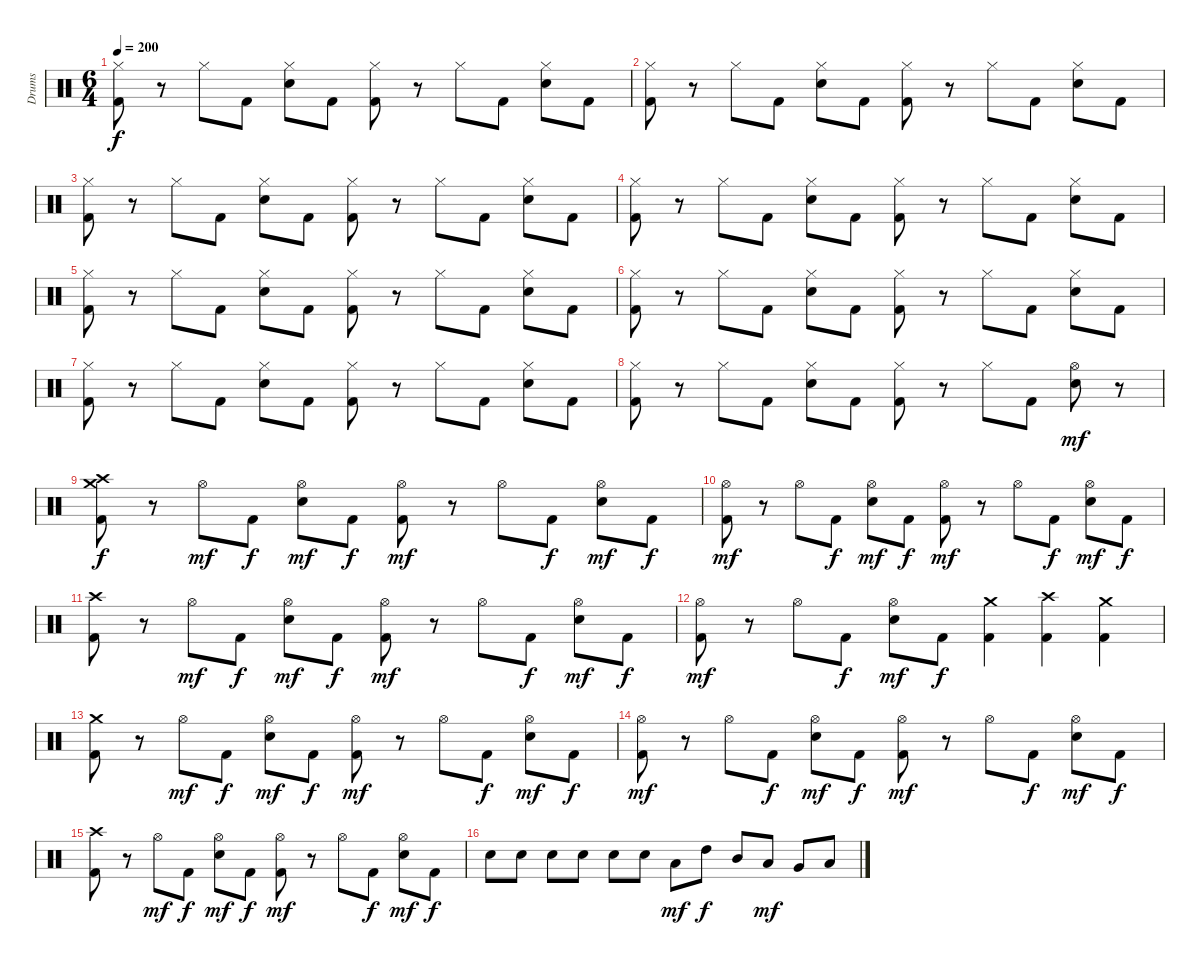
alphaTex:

\track ("Drums" "Drums") {instrument percussion}
\staff {score}
\articulation defaults
\ts (6 4)
\tempo 200
\clef neutral
\ks c
("Hi-Hat (closed)" "Kick (hit) 2").8{dy f} r.8 "Hi-Hat (closed)".8 "Kick (hit) 2".8 ("Hi-Hat (closed)" "Snare (hit) 2").8 "Kick (hit) 2".8 ("Hi-Hat (closed)" "Kick (hit) 2").8 r.8 "Hi-Hat (closed)".8 "Kick (hit) 2".8 ("Hi-Hat (closed)" "Snare (hit) 2").8 "Kick (hit) 2".8 |
("Hi-Hat (closed)" "Kick (hit) 2").8 r.8 "Hi-Hat (closed)".8 "Kick (hit) 2".8 ("Hi-Hat (closed)" "Snare (hit) 2").8 "Kick (hit) 2".8 ("Hi-Hat (closed)" "Kick (hit) 2").8 r.8 "Hi-Hat (closed)".8 "Kick (hit) 2".8 ("Hi-Hat (closed)" "Snare (hit) 2").8 "Kick (hit) 2".8 |
("Hi-Hat (closed)" "Kick (hit) 2").8 r.8 "Hi-Hat (closed)".8 "Kick (hit) 2".8 ("Hi-Hat (closed)" "Snare (hit) 2").8 "Kick (hit) 2".8 ("Hi-Hat (closed)" "Kick (hit) 2").8 r.8 "Hi-Hat (closed)".8 "Kick (hit) 2".8 ("Hi-Hat (closed)" "Snare (hit) 2").8 "Kick (hit) 2".8 |
("Hi-Hat (closed)" "Kick (hit) 2").8 r.8 "Hi-Hat (closed)".8 "Kick (hit) 2".8 ("Hi-Hat (closed)" "Snare (hit) 2").8 "Kick (hit) 2".8 ("Hi-Hat (closed)" "Kick (hit) 2").8 r.8 "Hi-Hat (closed)".8 "Kick (hit) 2".8 ("Hi-Hat (closed)" "Snare (hit) 2").8 "Kick (hit) 2".8 |
("Hi-Hat (closed)" "Kick (hit) 2").8 r.8 "Hi-Hat (closed)".8 "Kick (hit) 2".8 ("Hi-Hat (closed)" "Snare (hit) 2").8 "Kick (hit) 2".8 ("Hi-Hat (closed)" "Kick (hit) 2").8 r.8 "Hi-Hat (closed)".8 "Kick (hit) 2".8 ("Hi-Hat (closed)" "Snare (hit) 2").8 "Kick (hit) 2".8 |
("Hi-Hat (closed)" "Kick (hit) 2").8 r.8 "Hi-Hat (closed)".8 "Kick (hit) 2".8 ("Hi-Hat (closed)" "Snare (hit) 2").8 "Kick (hit) 2".8 ("Hi-Hat (closed)" "Kick (hit) 2").8 r.8 "Hi-Hat (closed)".8 "Kick (hit) 2".8 ("Hi-Hat (closed)" "Snare (hit) 2").8 "Kick (hit) 2".8 |
("Hi-Hat (closed)" "Kick (hit) 2").8 r.8 "Hi-Hat (closed)".8 "Kick (hit) 2".8 ("Hi-Hat (closed)" "Snare (hit) 2").8 "Kick (hit) 2".8 ("Hi-Hat (closed)" "Kick (hit) 2").8 r.8 "Hi-Hat (closed)".8 "Kick (hit) 2".8 ("Hi-Hat (closed)" "Snare (hit) 2").8 "Kick (hit) 2".8 |
("Hi-Hat (closed)" "Kick (hit) 2").8 r.8 "Hi-Hat (closed)".8 "Kick (hit) 2".8 ("Hi-Hat (closed)" "Snare (hit) 2").8 "Kick (hit) 2".8 ("Hi-Hat (closed)" "Kick (hit) 2").8 r.8 "Hi-Hat (closed)".8 "Kick (hit) 2".8 ("Hi-Hat (open)" "Snare (hit) 2").8{dy mf} r.8 |
("Crash medium (hit)" "Crash high (hit)" "Kick (hit) 2").8{dy f} r.8 "Hi-Hat (open)".8{dy mf} "Kick (hit) 2".8{dy f} ("Hi-Hat (open)" "Snare (hit) 2").8{dy mf} "Kick (hit) 2".8{dy f} ("Hi-Hat (open)" "Kick (hit) 2").8{dy mf} r.8 "Hi-Hat (open)".8 "Kick (hit) 2".8{dy f} ("Hi-Hat (open)" "Snare (hit) 2").8{dy mf} "Kick (hit) 2".8{dy f} |
("Hi-Hat (open)" "Kick (hit) 2").8{dy mf} r.8 "Hi-Hat (open)".8 "Kick (hit) 2".8{dy f} ("Hi-Hat (open)" "Snare (hit) 2").8{dy mf} "Kick (hit) 2".8{dy f} ("Hi-Hat (open)" "Kick (hit) 2").8{dy mf} r.8 "Hi-Hat (open)".8 "Kick (hit) 2".8{dy f} ("Hi-Hat (open)" "Snare (hit) 2").8{dy mf} "Kick (hit) 2".8{dy f} |
("Crash high (hit)" "Kick (hit) 2").8 r.8 "Hi-Hat (open)".8{dy mf} "Kick (hit) 2".8{dy f} ("Hi-Hat (open)" "Snare (hit) 2").8{dy mf} "Kick (hit) 2".8{dy f} ("Hi-Hat (open)" "Kick (hit) 2").8{dy mf} r.8 "Hi-Hat (open)".8 "Kick (hit) 2".8{dy f} ("Hi-Hat (open)" "Snare (hit) 2").8{dy mf} "Kick (hit) 2".8{dy f} |
("Hi-Hat (open)" "Kick (hit) 2").8{dy mf} r.8 "Hi-Hat (open)".8 "Kick (hit) 2".8{dy f} ("Hi-Hat (open)" "Snare (hit) 2").8{dy mf} "Kick (hit) 2".8{dy f} ("Crash medium (hit)" "Kick (hit) 2").4 ("Crash high (hit)" "Kick (hit) 2").4 ("Crash medium (hit)" "Kick (hit) 2").4 |
("Crash medium (hit)" "Kick (hit) 2").8 r.8 "Hi-Hat (open)".8{dy mf} "Kick (hit) 2".8{dy f} ("Hi-Hat (open)" "Snare (hit) 2").8{dy mf} "Kick (hit) 2".8{dy f} ("Hi-Hat (open)" "Kick (hit) 2").8{dy mf} r.8 "Hi-Hat (open)".8 "Kick (hit) 2".8{dy f} ("Hi-Hat (open)" "Snare (hit) 2").8{dy mf} "Kick (hit) 2".8{dy f} |
("Hi-Hat (open)" "Kick (hit) 2").8{dy mf} r.8 "Hi-Hat (open)".8 "Kick (hit) 2".8{dy f} ("Hi-Hat (open)" "Snare (hit) 2").8{dy mf} "Kick (hit) 2".8{dy f} ("Hi-Hat (open)" "Kick (hit) 2").8{dy mf} r.8 "Hi-Hat (open)".8 "Kick (hit) 2".8{dy f} ("Hi-Hat (open)" "Snare (hit) 2").8{dy mf} "Kick (hit) 2".8{dy f} |
("Crash high (hit)" "Kick (hit) 2").8 r.8 "Hi-Hat (open)".8{dy mf} "Kick (hit) 2".8{dy f} ("Hi-Hat (open)" "Snare (hit) 2").8{dy mf} "Kick (hit) 2".8{dy f} ("Hi-Hat (open)" "Kick (hit) 2").8{dy mf} r.8 "Hi-Hat (open)".8 "Kick (hit) 2".8{dy f} ("Hi-Hat (open)" "Snare (hit) 2").8{dy mf} "Kick (hit) 2".8{dy f} |
"Snare (hit) 2".8 "Snare (hit) 2".8 "Snare (hit) 2".8 "Snare (hit) 2".8 "Snare (hit) 2".8 "Snare (hit) 2".8 "Low Floor Tom (hit)".8{dy mf} "High Tom (hit)".8{dy f} "Mid Tom (hit)".8 "Low Tom (hit)".8{dy mf} "Very Low Tom (hit)".8 "Low Floor Tom (hit)".8
